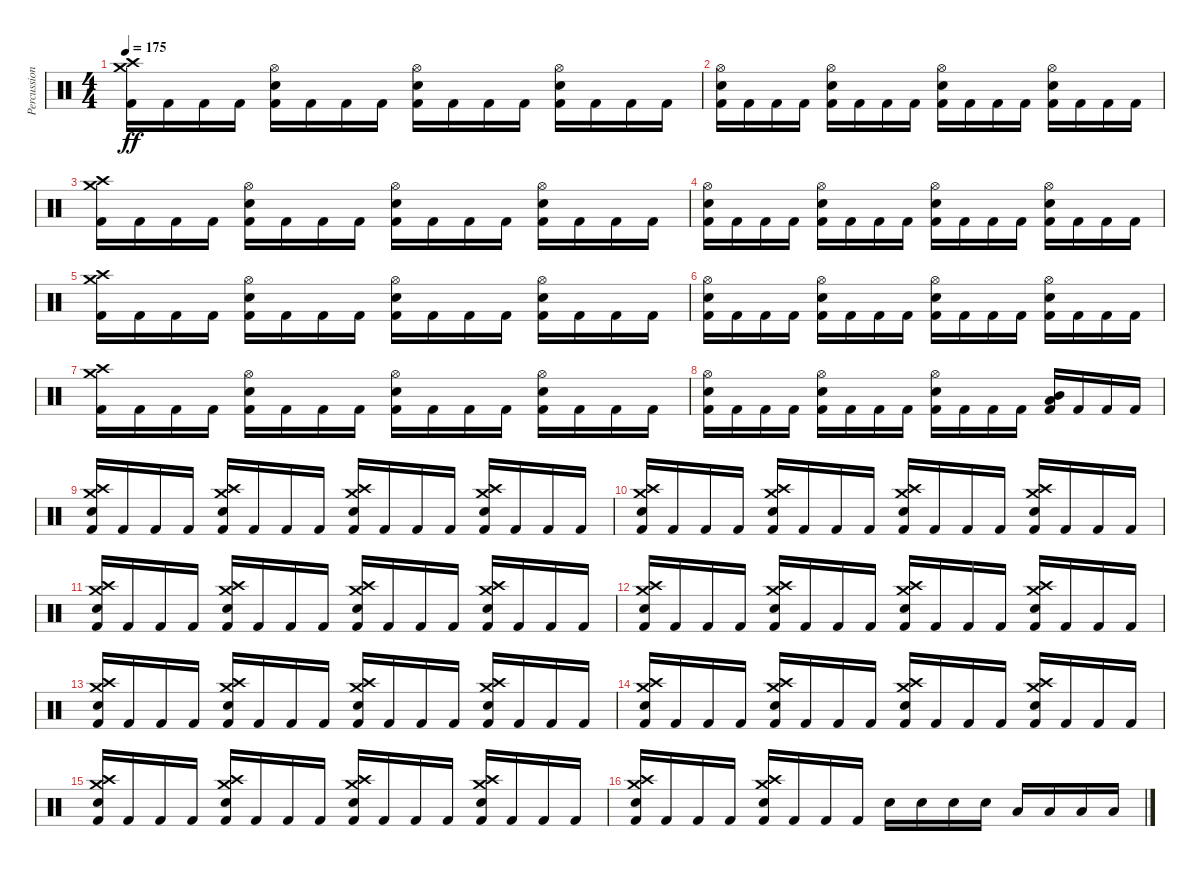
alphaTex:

\track ("Percussion" "Percussion") {instrument percussion}
\staff {score}
\articulation defaults
\ts (4 4)
\tempo 175
\clef neutral
\ks c
("Kick (hit) 2" "Crash medium (hit)" "Crash high (hit)").16{dy ff} "Kick (hit) 2".16 "Kick (hit) 2".16 "Kick (hit) 2".16 ("Kick (hit) 2" "Electric Snare (hit)" "Hi-Hat (open)").16 "Kick (hit) 2".16 "Kick (hit) 2".16 "Kick (hit) 2".16 ("Kick (hit) 2" "Electric Snare (hit)" "Hi-Hat (open)").16 "Kick (hit) 2".16 "Kick (hit) 2".16 "Kick (hit) 2".16 ("Kick (hit) 2" "Electric Snare (hit)" "Hi-Hat (open)").16 "Kick (hit) 2".16 "Kick (hit) 2".16 "Kick (hit) 2".16 |
("Kick (hit) 2" "Electric Snare (hit)" "Hi-Hat (open)").16 "Kick (hit) 2".16 "Kick (hit) 2".16 "Kick (hit) 2".16 ("Kick (hit) 2" "Electric Snare (hit)" "Hi-Hat (open)").16 "Kick (hit) 2".16 "Kick (hit) 2".16 "Kick (hit) 2".16 ("Kick (hit) 2" "Electric Snare (hit)" "Hi-Hat (open)").16 "Kick (hit) 2".16 "Kick (hit) 2".16 "Kick (hit) 2".16 ("Kick (hit) 2" "Electric Snare (hit)" "Hi-Hat (open)").16 "Kick (hit) 2".16 "Kick (hit) 2".16 "Kick (hit) 2".16 |
("Kick (hit) 2" "Crash medium (hit)" "Crash high (hit)").16 "Kick (hit) 2".16 "Kick (hit) 2".16 "Kick (hit) 2".16 ("Kick (hit) 2" "Electric Snare (hit)" "Hi-Hat (open)").16 "Kick (hit) 2".16 "Kick (hit) 2".16 "Kick (hit) 2".16 ("Kick (hit) 2" "Electric Snare (hit)" "Hi-Hat (open)").16 "Kick (hit) 2".16 "Kick (hit) 2".16 "Kick (hit) 2".16 ("Kick (hit) 2" "Electric Snare (hit)" "Hi-Hat (open)").16 "Kick (hit) 2".16 "Kick (hit) 2".16 "Kick (hit) 2".16 |
("Kick (hit) 2" "Electric Snare (hit)" "Hi-Hat (open)").16 "Kick (hit) 2".16 "Kick (hit) 2".16 "Kick (hit) 2".16 ("Kick (hit) 2" "Electric Snare (hit)" "Hi-Hat (open)").16 "Kick (hit) 2".16 "Kick (hit) 2".16 "Kick (hit) 2".16 ("Kick (hit) 2" "Electric Snare (hit)" "Hi-Hat (open)").16 "Kick (hit) 2".16 "Kick (hit) 2".16 "Kick (hit) 2".16 ("Kick (hit) 2" "Electric Snare (hit)" "Hi-Hat (open)").16 "Kick (hit) 2".16 "Kick (hit) 2".16 "Kick (hit) 2".16 |
("Kick (hit) 2" "Crash medium (hit)" "Crash high (hit)").16 "Kick (hit) 2".16 "Kick (hit) 2".16 "Kick (hit) 2".16 ("Kick (hit) 2" "Electric Snare (hit)" "Hi-Hat (open)").16 "Kick (hit) 2".16 "Kick (hit) 2".16 "Kick (hit) 2".16 ("Kick (hit) 2" "Electric Snare (hit)" "Hi-Hat (open)").16 "Kick (hit) 2".16 "Kick (hit) 2".16 "Kick (hit) 2".16 ("Kick (hit) 2" "Electric Snare (hit)" "Hi-Hat (open)").16 "Kick (hit) 2".16 "Kick (hit) 2".16 "Kick (hit) 2".16 |
("Kick (hit) 2" "Electric Snare (hit)" "Hi-Hat (open)").16 "Kick (hit) 2".16 "Kick (hit) 2".16 "Kick (hit) 2".16 ("Kick (hit) 2" "Electric Snare (hit)" "Hi-Hat (open)").16 "Kick (hit) 2".16 "Kick (hit) 2".16 "Kick (hit) 2".16 ("Kick (hit) 2" "Electric Snare (hit)" "Hi-Hat (open)").16 "Kick (hit) 2".16 "Kick (hit) 2".16 "Kick (hit) 2".16 ("Kick (hit) 2" "Electric Snare (hit)" "Hi-Hat (open)").16 "Kick (hit) 2".16 "Kick (hit) 2".16 "Kick (hit) 2".16 |
("Kick (hit) 2" "Crash medium (hit)" "Crash high (hit)").16 "Kick (hit) 2".16 "Kick (hit) 2".16 "Kick (hit) 2".16 ("Kick (hit) 2" "Electric Snare (hit)" "Hi-Hat (open)").16 "Kick (hit) 2".16 "Kick (hit) 2".16 "Kick (hit) 2".16 ("Kick (hit) 2" "Electric Snare (hit)" "Hi-Hat (open)").16 "Kick (hit) 2".16 "Kick (hit) 2".16 "Kick (hit) 2".16 ("Kick (hit) 2" "Electric Snare (hit)" "Hi-Hat (open)").16 "Kick (hit) 2".16 "Kick (hit) 2".16 "Kick (hit) 2".16 |
("Kick (hit) 2" "Electric Snare (hit)" "Hi-Hat (open)").16 "Kick (hit) 2".16 "Kick (hit) 2".16 "Kick (hit) 2".16 ("Kick (hit) 2" "Electric Snare (hit)" "Hi-Hat (open)").16 "Kick (hit) 2".16 "Kick (hit) 2".16 "Kick (hit) 2".16 ("Kick (hit) 2" "Electric Snare (hit)" "Hi-Hat (open)").16 "Kick (hit) 2".16 "Kick (hit) 2".16 "Kick (hit) 2".16 ("Kick (hit) 2" "Low Tom (hit)" "Mid Tom (hit)").16 "Kick (hit) 2".16 "Kick (hit) 2".16 "Kick (hit) 2".16 |
("Kick (hit) 2" "Electric Snare (hit)" "Crash medium (hit)" "Crash high (hit)").16 "Kick (hit) 2".16 "Kick (hit) 2".16 "Kick (hit) 2".16 ("Kick (hit) 2" "Electric Snare (hit)" "Crash medium (hit)" "Crash high (hit)").16 "Kick (hit) 2".16 "Kick (hit) 2".16 "Kick (hit) 2".16 ("Kick (hit) 2" "Electric Snare (hit)" "Crash medium (hit)" "Crash high (hit)").16 "Kick (hit) 2".16 "Kick (hit) 2".16 "Kick (hit) 2".16 ("Kick (hit) 2" "Electric Snare (hit)" "Crash medium (hit)" "Crash high (hit)").16 "Kick (hit) 2".16 "Kick (hit) 2".16 "Kick (hit) 2".16 |
("Kick (hit) 2" "Electric Snare (hit)" "Crash medium (hit)" "Crash high (hit)").16 "Kick (hit) 2".16 "Kick (hit) 2".16 "Kick (hit) 2".16 ("Kick (hit) 2" "Electric Snare (hit)" "Crash medium (hit)" "Crash high (hit)").16 "Kick (hit) 2".16 "Kick (hit) 2".16 "Kick (hit) 2".16 ("Kick (hit) 2" "Electric Snare (hit)" "Crash medium (hit)" "Crash high (hit)").16 "Kick (hit) 2".16 "Kick (hit) 2".16 "Kick (hit) 2".16 ("Kick (hit) 2" "Electric Snare (hit)" "Crash medium (hit)" "Crash high (hit)").16 "Kick (hit) 2".16 "Kick (hit) 2".16 "Kick (hit) 2".16 |
("Kick (hit) 2" "Electric Snare (hit)" "Crash medium (hit)" "Crash high (hit)").16 "Kick (hit) 2".16 "Kick (hit) 2".16 "Kick (hit) 2".16 ("Kick (hit) 2" "Electric Snare (hit)" "Crash medium (hit)" "Crash high (hit)").16 "Kick (hit) 2".16 "Kick (hit) 2".16 "Kick (hit) 2".16 ("Kick (hit) 2" "Electric Snare (hit)" "Crash medium (hit)" "Crash high (hit)").16 "Kick (hit) 2".16 "Kick (hit) 2".16 "Kick (hit) 2".16 ("Kick (hit) 2" "Electric Snare (hit)" "Crash medium (hit)" "Crash high (hit)").16 "Kick (hit) 2".16 "Kick (hit) 2".16 "Kick (hit) 2".16 |
("Kick (hit) 2" "Electric Snare (hit)" "Crash medium (hit)" "Crash high (hit)").16 "Kick (hit) 2".16 "Kick (hit) 2".16 "Kick (hit) 2".16 ("Kick (hit) 2" "Electric Snare (hit)" "Crash medium (hit)" "Crash high (hit)").16 "Kick (hit) 2".16 "Kick (hit) 2".16 "Kick (hit) 2".16 ("Kick (hit) 2" "Electric Snare (hit)" "Crash medium (hit)" "Crash high (hit)").16 "Kick (hit) 2".16 "Kick (hit) 2".16 "Kick (hit) 2".16 ("Kick (hit) 2" "Electric Snare (hit)" "Crash medium (hit)" "Crash high (hit)").16 "Kick (hit) 2".16 "Kick (hit) 2".16 "Kick (hit) 2".16 |
("Kick (hit) 2" "Electric Snare (hit)" "Crash medium (hit)" "Crash high (hit)").16 "Kick (hit) 2".16 "Kick (hit) 2".16 "Kick (hit) 2".16 ("Kick (hit) 2" "Electric Snare (hit)" "Crash medium (hit)" "Crash high (hit)").16 "Kick (hit) 2".16 "Kick (hit) 2".16 "Kick (hit) 2".16 ("Kick (hit) 2" "Electric Snare (hit)" "Crash medium (hit)" "Crash high (hit)").16 "Kick (hit) 2".16 "Kick (hit) 2".16 "Kick (hit) 2".16 ("Kick (hit) 2" "Electric Snare (hit)" "Crash medium (hit)" "Crash high (hit)").16 "Kick (hit) 2".16 "Kick (hit) 2".16 "Kick (hit) 2".16 |
("Kick (hit) 2" "Electric Snare (hit)" "Crash medium (hit)" "Crash high (hit)").16 "Kick (hit) 2".16 "Kick (hit) 2".16 "Kick (hit) 2".16 ("Kick (hit) 2" "Electric Snare (hit)" "Crash medium (hit)" "Crash high (hit)").16 "Kick (hit) 2".16 "Kick (hit) 2".16 "Kick (hit) 2".16 ("Kick (hit) 2" "Electric Snare (hit)" "Crash medium (hit)" "Crash high (hit)").16 "Kick (hit) 2".16 "Kick (hit) 2".16 "Kick (hit) 2".16 ("Kick (hit) 2" "Electric Snare (hit)" "Crash medium (hit)" "Crash high (hit)").16 "Kick (hit) 2".16 "Kick (hit) 2".16 "Kick (hit) 2".16 |
("Kick (hit) 2" "Electric Snare (hit)" "Crash medium (hit)" "Crash high (hit)").16 "Kick (hit) 2".16 "Kick (hit) 2".16 "Kick (hit) 2".16 ("Kick (hit) 2" "Electric Snare (hit)" "Crash medium (hit)" "Crash high (hit)").16 "Kick (hit) 2".16 "Kick (hit) 2".16 "Kick (hit) 2".16 ("Kick (hit) 2" "Electric Snare (hit)" "Crash medium (hit)" "Crash high (hit)").16 "Kick (hit) 2".16 "Kick (hit) 2".16 "Kick (hit) 2".16 ("Kick (hit) 2" "Electric Snare (hit)" "Crash medium (hit)" "Crash high (hit)").16 "Kick (hit) 2".16 "Kick (hit) 2".16 "Kick (hit) 2".16 |
("Kick (hit) 2" "Electric Snare (hit)" "Crash medium (hit)" "Crash high (hit)").16 "Kick (hit) 2".16 "Kick (hit) 2".16 "Kick (hit) 2".16 ("Kick (hit) 2" "Electric Snare (hit)" "Crash medium (hit)" "Crash high (hit)").16 "Kick (hit) 2".16 "Kick (hit) 2".16 "Kick (hit) 2".16 "Electric Snare (hit)".16 "Electric Snare (hit)".16 "Electric Snare (hit)".16 "Electric Snare (hit)".16 "Low Floor Tom (hit)".16 "Low Floor Tom (hit)".16 "Low Floor Tom (hit)".16 "Low Floor Tom (hit)".16
